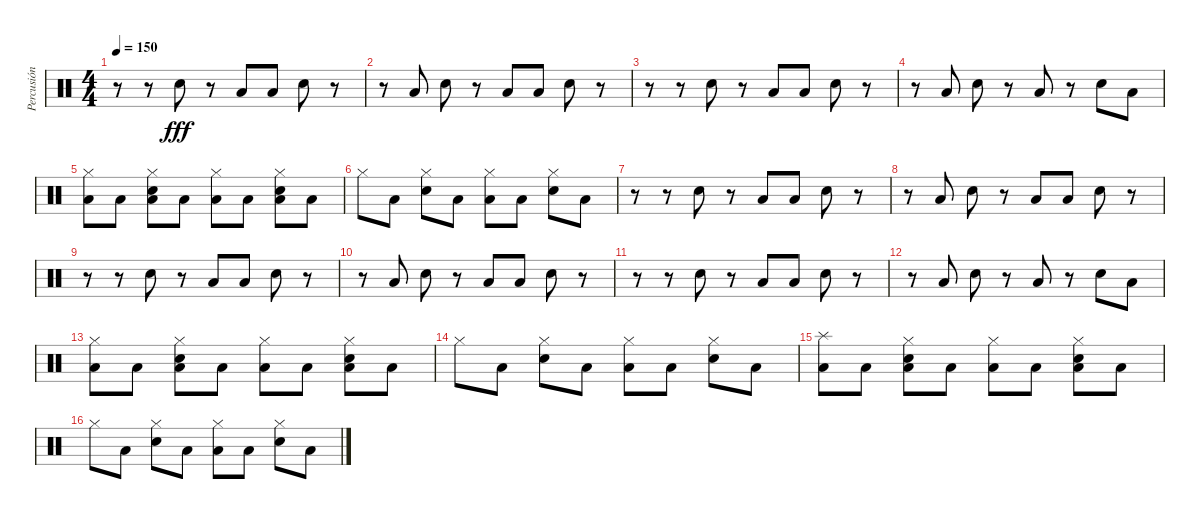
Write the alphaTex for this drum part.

\track ("Percusión" "Percusión") {instrument percussion}
\staff {score}
\articulation defaults
\ts (4 4)
\tempo 150
\clef neutral
\ks c
r.8{dy fff} r.8 "Snare (hit) 2".8 r.8 "Low Tom (hit)".8 "Low Tom (hit)".8 "Snare (hit) 2".8 r.8 |
r.8 "Low Tom (hit)".8 "Snare (hit) 2".8 r.8 "Low Tom (hit)".8 "Low Tom (hit)".8 "Snare (hit) 2".8 r.8 |
r.8 r.8 "Snare (hit) 2".8 r.8 "Low Tom (hit)".8 "Low Tom (hit)".8 "Snare (hit) 2".8 r.8 |
r.8 "Low Tom (hit)".8 "Snare (hit) 2".8 r.8 "Low Tom (hit)".8 r.8 "Snare (hit) 2".8 "Low Tom (hit)".8 |
("Hi-Hat (closed)" "Low Tom (hit)").8 "Low Tom (hit)".8 ("Low Tom (hit)" "Hi-Hat (closed)" "Snare (hit) 2").8 "Low Tom (hit)".8 ("Hi-Hat (closed)" "Low Tom (hit)").8 "Low Tom (hit)".8 ("Low Tom (hit)" "Hi-Hat (closed)" "Snare (hit) 2").8 "Low Tom (hit)".8 |
"Hi-Hat (closed)".8 "Low Tom (hit)".8 ("Hi-Hat (closed)" "Snare (hit) 2").8 "Low Tom (hit)".8 ("Hi-Hat (closed)" "Low Tom (hit)").8 "Low Tom (hit)".8 ("Hi-Hat (closed)" "Snare (hit) 2").8 "Low Tom (hit)".8 |
r.8 r.8 "Snare (hit) 2".8 r.8 "Low Tom (hit)".8 "Low Tom (hit)".8 "Snare (hit) 2".8 r.8 |
r.8 "Low Tom (hit)".8 "Snare (hit) 2".8 r.8 "Low Tom (hit)".8 "Low Tom (hit)".8 "Snare (hit) 2".8 r.8 |
r.8 r.8 "Snare (hit) 2".8 r.8 "Low Tom (hit)".8 "Low Tom (hit)".8 "Snare (hit) 2".8 r.8 |
r.8 "Low Tom (hit)".8 "Snare (hit) 2".8 r.8 "Low Tom (hit)".8 "Low Tom (hit)".8 "Snare (hit) 2".8 r.8 |
r.8 r.8 "Snare (hit) 2".8 r.8 "Low Tom (hit)".8 "Low Tom (hit)".8 "Snare (hit) 2".8 r.8 |
r.8 "Low Tom (hit)".8 "Snare (hit) 2".8 r.8 "Low Tom (hit)".8 r.8 "Snare (hit) 2".8 "Low Tom (hit)".8 |
("Hi-Hat (closed)" "Low Tom (hit)").8 "Low Tom (hit)".8 ("Low Tom (hit)" "Hi-Hat (closed)" "Snare (hit) 2").8 "Low Tom (hit)".8 ("Hi-Hat (closed)" "Low Tom (hit)").8 "Low Tom (hit)".8 ("Low Tom (hit)" "Hi-Hat (closed)" "Snare (hit) 2").8 "Low Tom (hit)".8 |
"Hi-Hat (closed)".8 "Low Tom (hit)".8 ("Hi-Hat (closed)" "Snare (hit) 2").8 "Low Tom (hit)".8 ("Hi-Hat (closed)" "Low Tom (hit)").8 "Low Tom (hit)".8 ("Hi-Hat (closed)" "Snare (hit) 2").8 "Low Tom (hit)".8 |
("Splash (hit)" "Low Tom (hit)").8 "Low Tom (hit)".8 ("Low Tom (hit)" "Hi-Hat (closed)" "Snare (hit) 2").8 "Low Tom (hit)".8 ("Hi-Hat (closed)" "Low Tom (hit)").8 "Low Tom (hit)".8 ("Low Tom (hit)" "Hi-Hat (closed)" "Snare (hit) 2").8 "Low Tom (hit)".8 |
"Hi-Hat (closed)".8 "Low Tom (hit)".8 ("Hi-Hat (closed)" "Snare (hit) 2").8 "Low Tom (hit)".8 ("Hi-Hat (closed)" "Low Tom (hit)").8 "Low Tom (hit)".8 ("Hi-Hat (closed)" "Snare (hit) 2").8 "Low Tom (hit)".8
